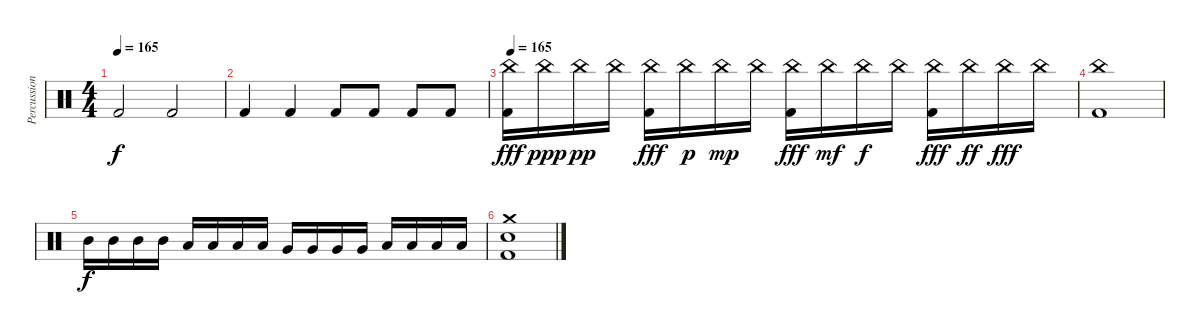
\track ("Percussions" "Percussion") {instrument percussion}
\staff {score}
\articulation defaults
\ts (4 4)
\tempo 165
\clef neutral
\ks c "Kick (hit) 2".2{dy f} "Kick (hit) 2".2
|
"Kick (hit) 2".4 "Kick (hit) 2".4 "Kick (hit) 2".8 "Kick (hit) 2".8 "Kick (hit) 2".8 "Kick (hit) 2".8 |
\tempo 165
("China (hit)" "Kick (hit) 2").16{dy fff} "China (hit)".16{dy ppp} "China (hit)".16{dy pp} "China (hit)".16 ("China (hit)" "Kick (hit) 2").16{dy fff} "China (hit)".16{dy p} "China (hit)".16{dy mp} "China (hit)".16 ("China (hit)" "Kick (hit) 2").16{dy fff} "China (hit)".16{dy mf} "China (hit)".16{dy f} "China (hit)".16 ("China (hit)" "Kick (hit) 2").16{dy fff} "China (hit)".16{dy ff} "China (hit)".16{dy fff} "China (hit)".16 |
("China (hit)" "Kick (hit) 2").1 |
"Mid Tom (hit)".16{dy f} "Mid Tom (hit)".16 "Mid Tom (hit)".16 "Mid Tom (hit)".16 "Low Tom (hit)".16 "Low Tom (hit)".16 "Low Tom (hit)".16 "Low Tom (hit)".16 "Very Low Tom (hit)".16 "Very Low Tom (hit)".16 "Very Low Tom (hit)".16 "Very Low Tom (hit)".16 "Low Floor Tom (hit)".16 "Low Floor Tom (hit)".16 "Low Floor Tom (hit)".16 "Low Floor Tom (hit)".16 |
("Crash medium (hit)" "Snare (hit) 2" "Kick (hit) 2").1
